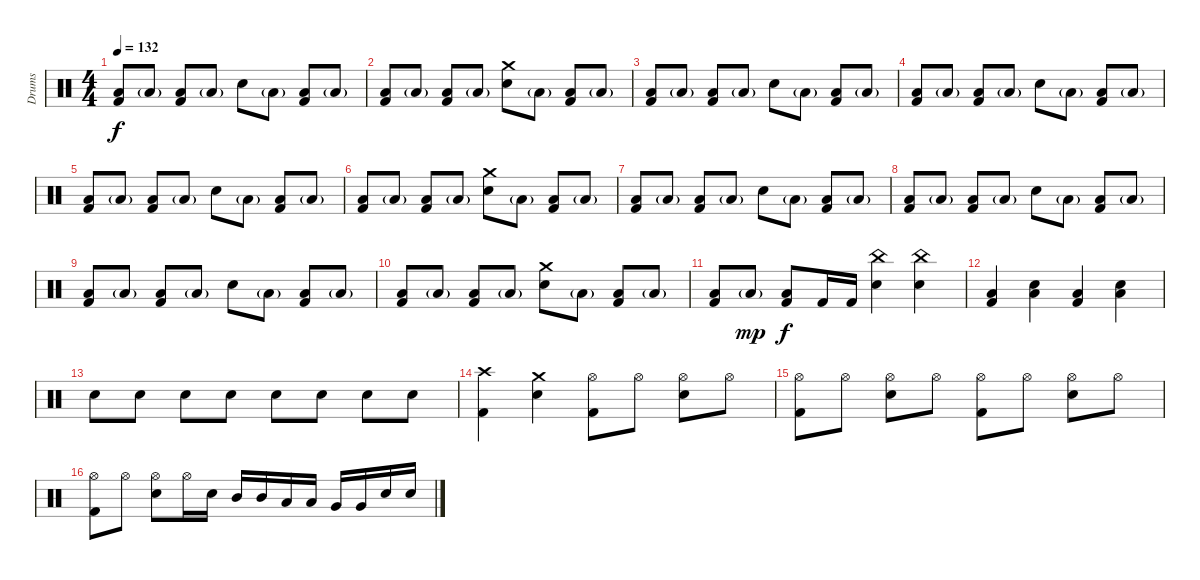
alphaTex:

\track ("Drums" "Drums") {instrument percussion}
\staff {score}
\articulation defaults
\ts (4 4)
\tempo 132
\clef neutral
\ks c
("Low Floor Tom (hit)" "Kick (hit) 2").8{dy f} "Low Floor Tom (hit)"{g}.8 ("Low Floor Tom (hit)" "Kick (hit) 2").8 "Low Floor Tom (hit)"{g}.8 "Snare (hit) 2".8 "Low Floor Tom (hit)"{g}.8 ("Low Floor Tom (hit)" "Kick (hit) 2").8 "Low Floor Tom (hit)"{g}.8 |
("Low Floor Tom (hit)" "Kick (hit) 2").8 "Low Floor Tom (hit)"{g}.8 ("Low Floor Tom (hit)" "Kick (hit) 2").8 "Low Floor Tom (hit)"{g}.8 ("Crash medium (hit)" "Snare (hit) 2").8 "Low Floor Tom (hit)"{g}.8 ("Low Floor Tom (hit)" "Kick (hit) 2").8 "Low Floor Tom (hit)"{g}.8 |
("Low Floor Tom (hit)" "Kick (hit) 2").8 "Low Floor Tom (hit)"{g}.8 ("Low Floor Tom (hit)" "Kick (hit) 2").8 "Low Floor Tom (hit)"{g}.8 "Snare (hit) 2".8 "Low Floor Tom (hit)"{g}.8 ("Low Floor Tom (hit)" "Kick (hit) 2").8 "Low Floor Tom (hit)"{g}.8 |
("Low Floor Tom (hit)" "Kick (hit) 2").8 "Low Floor Tom (hit)"{g}.8 ("Low Floor Tom (hit)" "Kick (hit) 2").8 "Low Floor Tom (hit)"{g}.8 "Snare (hit) 2".8 "Low Floor Tom (hit)"{g}.8 ("Low Floor Tom (hit)" "Kick (hit) 2").8 "Low Floor Tom (hit)"{g}.8 |
("Low Floor Tom (hit)" "Kick (hit) 2").8 "Low Floor Tom (hit)"{g}.8 ("Low Floor Tom (hit)" "Kick (hit) 2").8 "Low Floor Tom (hit)"{g}.8 "Snare (hit) 2".8 "Low Floor Tom (hit)"{g}.8 ("Low Floor Tom (hit)" "Kick (hit) 2").8 "Low Floor Tom (hit)"{g}.8 |
("Low Floor Tom (hit)" "Kick (hit) 2").8 "Low Floor Tom (hit)"{g}.8 ("Low Floor Tom (hit)" "Kick (hit) 2").8 "Low Floor Tom (hit)"{g}.8 ("Crash medium (hit)" "Snare (hit) 2").8 "Low Floor Tom (hit)"{g}.8 ("Low Floor Tom (hit)" "Kick (hit) 2").8 "Low Floor Tom (hit)"{g}.8 |
("Low Floor Tom (hit)" "Kick (hit) 2").8 "Low Floor Tom (hit)"{g}.8 ("Low Floor Tom (hit)" "Kick (hit) 2").8 "Low Floor Tom (hit)"{g}.8 "Snare (hit) 2".8 "Low Floor Tom (hit)"{g}.8 ("Low Floor Tom (hit)" "Kick (hit) 2").8 "Low Floor Tom (hit)"{g}.8 |
("Low Floor Tom (hit)" "Kick (hit) 2").8 "Low Floor Tom (hit)"{g}.8 ("Low Floor Tom (hit)" "Kick (hit) 2").8 "Low Floor Tom (hit)"{g}.8 "Snare (hit) 2".8 "Low Floor Tom (hit)"{g}.8 ("Low Floor Tom (hit)" "Kick (hit) 2").8 "Low Floor Tom (hit)"{g}.8 |
("Low Floor Tom (hit)" "Kick (hit) 2").8 "Low Floor Tom (hit)"{g}.8 ("Low Floor Tom (hit)" "Kick (hit) 2").8 "Low Floor Tom (hit)"{g}.8 "Snare (hit) 2".8 "Low Floor Tom (hit)"{g}.8 ("Low Floor Tom (hit)" "Kick (hit) 2").8 "Low Floor Tom (hit)"{g}.8 |
("Low Floor Tom (hit)" "Kick (hit) 2").8 "Low Floor Tom (hit)"{g}.8 ("Low Floor Tom (hit)" "Kick (hit) 2").8 "Low Floor Tom (hit)"{g}.8 ("Crash medium (hit)" "Snare (hit) 2").8 "Low Floor Tom (hit)"{g}.8 ("Low Floor Tom (hit)" "Kick (hit) 2").8 "Low Floor Tom (hit)"{g}.8 |
("Low Floor Tom (hit)" "Kick (hit) 2").8 "Low Floor Tom (hit)"{g}.8{dy mp} ("Low Floor Tom (hit)" "Kick (hit) 2").8{dy f} "Kick (hit) 2".16 "Kick (hit) 2".16 ("China (hit)" "Snare (hit) 2").4 ("China (hit)" "Snare (hit) 2").4 |
("Low Floor Tom (hit)" "Kick (hit) 2").4 ("Low Floor Tom (hit)" "Snare (hit) 2").4 ("Low Floor Tom (hit)" "Kick (hit) 2").4 ("Low Floor Tom (hit)" "Snare (hit) 2").4 |
"Snare (hit) 2".8 "Snare (hit) 2".8 "Snare (hit) 2".8 "Snare (hit) 2".8 "Snare (hit) 2".8 "Snare (hit) 2".8 "Snare (hit) 2".8 "Snare (hit) 2".8 |
("Crash high (hit)" "Kick (hit) 2").4 ("Crash medium (hit)" "Snare (hit) 2").4 ("Hi-Hat (open)" "Kick (hit) 2").8 "Hi-Hat (open)".8 ("Hi-Hat (open)" "Snare (hit) 2").8 "Hi-Hat (open)".8 |
("Hi-Hat (open)" "Kick (hit) 2").8 "Hi-Hat (open)".8 ("Hi-Hat (open)" "Snare (hit) 2").8 "Hi-Hat (open)".8 ("Hi-Hat (open)" "Kick (hit) 2").8 "Hi-Hat (open)".8 ("Hi-Hat (open)" "Snare (hit) 2").8 "Hi-Hat (open)".8 |
("Hi-Hat (open)" "Kick (hit) 2").8 "Hi-Hat (open)".8 ("Hi-Hat (open)" "Snare (hit) 2").8 "Hi-Hat (open)".16 "Snare (hit) 2".16 "Mid Tom (hit)".16 "Mid Tom (hit)".16 "Low Tom (hit)".16 "Low Tom (hit)".16 "Very Low Tom (hit)".16 "Very Low Tom (hit)".16 "Snare (hit) 2".16 "Snare (hit) 2".16
